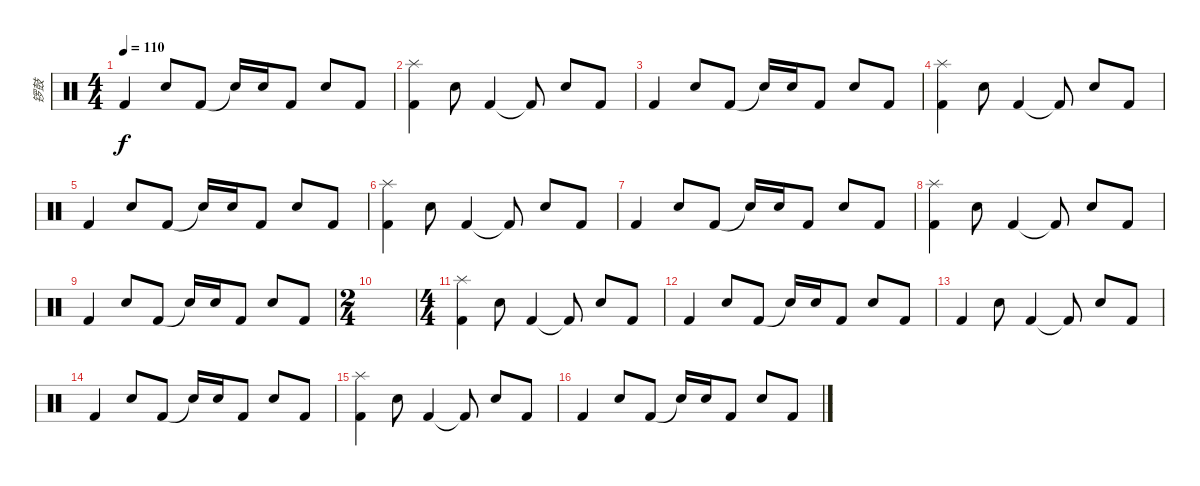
\track ("锣鼓" "锣鼓") {instrument percussion}
\staff {score}
\articulation defaults
\ts (4 4)
\tempo 110
\clef neutral
\ks c "Kick (hit) 2".4{dy f} "Snare (hit) 2".8 "Kick (hit) 2".8 "Snare (hit)"{t}.16 "Snare (hit) 2".16 "Kick (hit) 2".8 "Snare (hit) 2".8 "Kick (hit) 2".8
|
("Kick (hit) 2" "Splash (hit)").4 "Snare (hit) 2".8 "Kick (hit) 2".4 "Kick (hit) 2"{t}.8 "Snare (hit) 2".8 "Kick (hit) 2".8 |
"Kick (hit) 2".4 "Snare (hit) 2".8 "Kick (hit) 2".8 "Snare (hit)"{t}.16 "Snare (hit) 2".16 "Kick (hit) 2".8 "Snare (hit) 2".8 "Kick (hit) 2".8 |
("Kick (hit) 2" "Splash (hit)").4 "Snare (hit) 2".8 "Kick (hit) 2".4 "Kick (hit) 2"{t}.8 "Snare (hit) 2".8 "Kick (hit) 2".8 |
"Kick (hit) 2".4 "Snare (hit) 2".8 "Kick (hit) 2".8 "Snare (hit)"{t}.16 "Snare (hit) 2".16 "Kick (hit) 2".8 "Snare (hit) 2".8 "Kick (hit) 2".8 |
("Kick (hit) 2" "Splash (hit)").4 "Snare (hit) 2".8 "Kick (hit) 2".4 "Kick (hit) 2"{t}.8 "Snare (hit) 2".8 "Kick (hit) 2".8 |
"Kick (hit) 2".4 "Snare (hit) 2".8 "Kick (hit) 2".8 "Snare (hit)"{t}.16 "Snare (hit) 2".16 "Kick (hit) 2".8 "Snare (hit) 2".8 "Kick (hit) 2".8 |
("Kick (hit) 2" "Splash (hit)").4 "Snare (hit) 2".8 "Kick (hit) 2".4 "Kick (hit) 2"{t}.8 "Snare (hit) 2".8 "Kick (hit) 2".8 |
"Kick (hit) 2".4 "Snare (hit) 2".8 "Kick (hit) 2".8 "Snare (hit)"{t}.16 "Snare (hit) 2".16 "Kick (hit) 2".8 "Snare (hit) 2".8 "Kick (hit) 2".8 |
\ts (2 4)
|
\ts (4 4)
("Kick (hit) 2" "Splash (hit)").4 "Snare (hit) 2".8 "Kick (hit) 2".4 "Kick (hit) 2"{t}.8 "Snare (hit) 2".8 "Kick (hit) 2".8 |
"Kick (hit) 2".4 "Snare (hit) 2".8 "Kick (hit) 2".8 "Snare (hit)"{t}.16 "Snare (hit) 2".16 "Kick (hit) 2".8 "Snare (hit) 2".8 "Kick (hit) 2".8 |
"Kick (hit) 2".4 "Snare (hit) 2".8 "Kick (hit) 2".4 "Kick (hit) 2"{t}.8 "Snare (hit) 2".8 "Kick (hit) 2".8 |
"Kick (hit) 2".4 "Snare (hit) 2".8 "Kick (hit) 2".8 "Snare (hit)"{t}.16 "Snare (hit) 2".16 "Kick (hit) 2".8 "Snare (hit) 2".8 "Kick (hit) 2".8 |
("Kick (hit) 2" "Splash (hit)").4 "Snare (hit) 2".8 "Kick (hit) 2".4 "Kick (hit) 2"{t}.8 "Snare (hit) 2".8 "Kick (hit) 2".8 |
"Kick (hit) 2".4 "Snare (hit) 2".8 "Kick (hit) 2".8 "Snare (hit)"{t}.16 "Snare (hit) 2".16 "Kick (hit) 2".8 "Snare (hit) 2".8 "Kick (hit) 2".8
